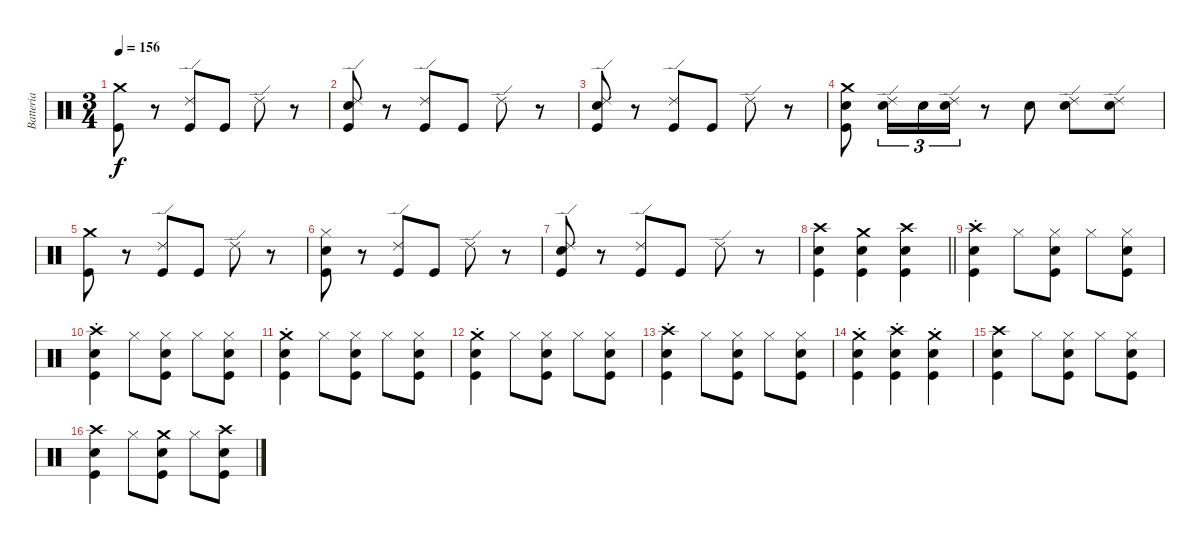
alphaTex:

\track ("Batteria" "Batteria") {instrument percussion}
\staff {score}
\articulation defaults
\ts (3 4)
\tempo 156
\clef neutral
\ks c
("Crash medium (hit)" "Kick (hit)").8{dy f} r.8 ("Ride (edge) 2" "Kick (hit)").8 "Kick (hit)".8 "Ride (edge) 2".8 r.8 |
("Ride (edge) 2" "Electric Snare (hit)" "Kick (hit)").8 r.8 ("Ride (edge) 2" "Kick (hit)").8 "Kick (hit)".8 "Ride (edge) 2".8 r.8 |
("Ride (edge) 2" "Electric Snare (hit)" "Kick (hit)").8 r.8 ("Ride (edge) 2" "Kick (hit)").8 "Kick (hit)".8 "Ride (edge) 2".8 r.8 |
("Crash medium (hit)" "Electric Snare (hit)" "Kick (hit)").8 ("Ride (edge) 2" "Electric Snare (hit)").16{tu (3 2)} "Electric Snare (hit)".16{tu (3 2)} ("Ride (edge) 2" "Electric Snare (hit)").16{tu (3 2)} r.8 "Electric Snare (hit)".8 ("Ride (edge) 2" "Electric Snare (hit)").8 ("Ride (edge) 2" "Electric Snare (hit)").8 |
("Crash medium (hit)" "Kick (hit)").8 r.8 ("Ride (edge) 2" "Kick (hit)").8 "Kick (hit)".8 "Ride (edge) 2".8 r.8 |
("Hi-Hat (closed)" "Electric Snare (hit)" "Kick (hit)").8 r.8 ("Ride (edge) 2" "Kick (hit)").8 "Kick (hit)".8 "Ride (edge) 2".8 r.8 |
("Ride (edge) 2" "Electric Snare (hit)" "Kick (hit)").8 r.8 ("Ride (edge) 2" "Kick (hit)").8 "Kick (hit)".8 "Ride (edge) 2".8 r.8 |
\barLineRight lightlight
("Crash high (hit)" "Electric Snare (hit)" "Kick (hit)").4 ("Crash medium (hit)" "Electric Snare (hit)" "Kick (hit)").4 ("Crash high (hit)" "Electric Snare (hit)" "Kick (hit)").4 |
\section ("" "")
("Crash high (hit)"{st} "Electric Snare (hit)"{st} "Kick (hit)"{st}).4 "Hi-Hat (closed)".8 ("Hi-Hat (closed)" "Electric Snare (hit)" "Kick (hit)").8 "Hi-Hat (closed)".8 ("Hi-Hat (closed)" "Electric Snare (hit)" "Kick (hit)").8 |
("Crash high (hit)"{st} "Electric Snare (hit)"{st} "Kick (hit)"{st}).4 "Hi-Hat (closed)".8 ("Hi-Hat (closed)" "Electric Snare (hit)" "Kick (hit)").8 "Hi-Hat (closed)".8 ("Hi-Hat (closed)" "Electric Snare (hit)" "Kick (hit)").8 |
("Crash medium (hit)"{st} "Electric Snare (hit)"{st} "Kick (hit)"{st}).4 "Hi-Hat (closed)".8 ("Hi-Hat (closed)" "Electric Snare (hit)" "Kick (hit)").8 "Hi-Hat (closed)".8 ("Hi-Hat (closed)" "Electric Snare (hit)" "Kick (hit)").8 |
("Crash medium (hit)"{st} "Electric Snare (hit)"{st} "Kick (hit)"{st}).4 "Hi-Hat (closed)".8 ("Hi-Hat (closed)" "Electric Snare (hit)" "Kick (hit)").8 "Hi-Hat (closed)".8 ("Hi-Hat (closed)" "Electric Snare (hit)" "Kick (hit)").8 |
("Crash high (hit)"{st} "Electric Snare (hit)"{st} "Kick (hit)"{st}).4 "Hi-Hat (closed)".8 ("Hi-Hat (closed)" "Electric Snare (hit)" "Kick (hit)").8 "Hi-Hat (closed)".8 ("Hi-Hat (closed)" "Electric Snare (hit)" "Kick (hit)").8 |
("Crash medium (hit)"{st} "Electric Snare (hit)"{st} "Kick (hit)"{st}).4 ("Crash high (hit)"{st} "Electric Snare (hit)"{st} "Kick (hit)"{st}).4 ("Crash medium (hit)"{st} "Electric Snare (hit)"{st} "Kick (hit)"{st}).4 |
("Crash high (hit)" "Electric Snare (hit)" "Kick (hit)").4 "Hi-Hat (closed)".8 ("Hi-Hat (closed)" "Electric Snare (hit)" "Kick (hit)").8 "Hi-Hat (closed)".8 ("Hi-Hat (closed)" "Electric Snare (hit)" "Kick (hit)").8 |
("Crash high (hit)" "Electric Snare (hit)" "Kick (hit)").4 "Hi-Hat (closed)".8 ("Crash medium (hit)" "Electric Snare (hit)" "Kick (hit)").8 "Hi-Hat (closed)".8 ("Crash high (hit)" "Electric Snare (hit)" "Kick (hit)").8
